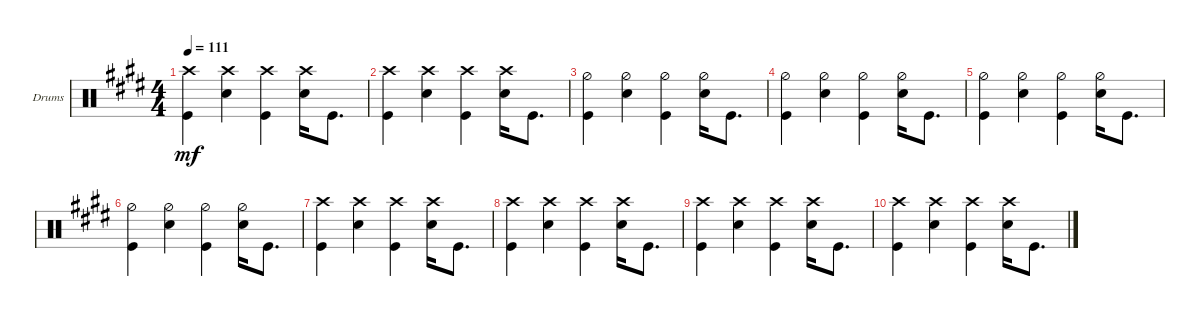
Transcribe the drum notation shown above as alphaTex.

\defaultSystemsLayout 4
\bracketExtendMode groupsimilarinstruments
\firstSystemTrackNameOrientation horizontal
\otherSystemsTrackNameOrientation horizontal
\track ("Drumkit" "Drums") {multiBarRest instrument percussion}
\staff {score}
\articulation defaults
\ts (4 4)
\tempo 111
\clef neutral
\ks e
("Kick (hit)" "Crash high (hit)").4{dy mf} ("Snare (hit) 2" "Crash high (hit)").4 ("Kick (hit)" "Crash high (hit)").4 ("Snare (hit) 2" "Crash high (hit)").16 "Kick (hit)".8{d} |
("Kick (hit)" "Crash high (hit)").4 ("Snare (hit) 2" "Crash high (hit)").4 ("Kick (hit)" "Crash high (hit)").4 ("Snare (hit) 2" "Crash high (hit)").16 "Kick (hit)".8{d} |
("Kick (hit)" "Hi-Hat (half)").4 ("Snare (hit) 2" "Hi-Hat (half)").4 ("Kick (hit)" "Hi-Hat (half)").4 ("Snare (hit) 2" "Hi-Hat (half)").16 "Kick (hit)".8{d} |
("Kick (hit)" "Hi-Hat (half)").4 ("Snare (hit) 2" "Hi-Hat (half)").4 ("Kick (hit)" "Hi-Hat (half)").4 ("Snare (hit) 2" "Hi-Hat (half)").16 "Kick (hit)".8{d} |
("Kick (hit)" "Hi-Hat (half)").4 ("Snare (hit) 2" "Hi-Hat (half)").4 ("Kick (hit)" "Hi-Hat (half)").4 ("Snare (hit) 2" "Hi-Hat (half)").16 "Kick (hit)".8{d} |
("Kick (hit)" "Hi-Hat (half)").4 ("Snare (hit) 2" "Hi-Hat (half)").4 ("Kick (hit)" "Hi-Hat (half)").4 ("Snare (hit) 2" "Hi-Hat (half)").16 "Kick (hit)".8{d} |
("Kick (hit)" "Crash high (hit)").4 ("Snare (hit) 2" "Crash high (hit)").4 ("Kick (hit)" "Crash high (hit)").4 ("Snare (hit) 2" "Crash high (hit)").16 "Kick (hit)".8{d} |
("Kick (hit)" "Crash high (hit)").4 ("Snare (hit) 2" "Crash high (hit)").4 ("Kick (hit)" "Crash high (hit)").4 ("Snare (hit) 2" "Crash high (hit)").16 "Kick (hit)".8{d} |
("Kick (hit)" "Crash high (hit)").4 ("Snare (hit) 2" "Crash high (hit)").4 ("Kick (hit)" "Crash high (hit)").4 ("Snare (hit) 2" "Crash high (hit)").16 "Kick (hit)".8{d} |
("Kick (hit)" "Crash high (hit)").4 ("Snare (hit) 2" "Crash high (hit)").4 ("Kick (hit)" "Crash high (hit)").4 ("Snare (hit) 2" "Crash high (hit)").16 "Kick (hit)".8{d}
